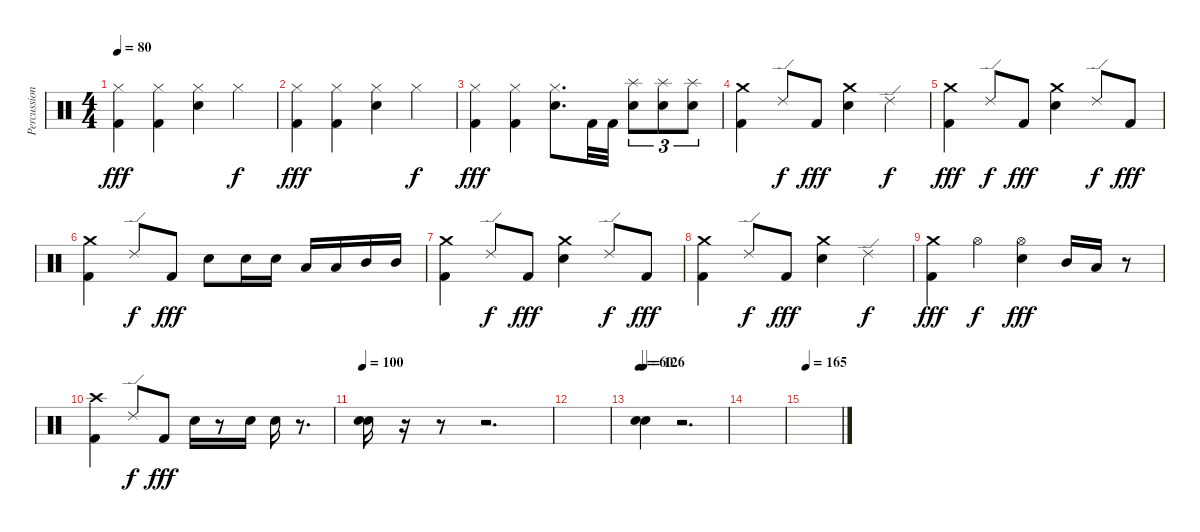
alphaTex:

\track ("Percussion" "Percussion") {instrument percussion}
\staff {score}
\articulation defaults
\ts (4 4)
\tempo 80
\clef neutral
\ks c
("Kick (hit) 2" "Hi-Hat (closed)").4{dy fff} ("Kick (hit) 2" "Hi-Hat (closed)").4 ("Electric Snare (hit)" "Hi-Hat (closed)").4 "Hi-Hat (closed)".4{dy f} |
("Kick (hit) 2" "Hi-Hat (closed)").4{dy fff} ("Kick (hit) 2" "Hi-Hat (closed)").4 ("Electric Snare (hit)" "Hi-Hat (closed)").4 "Hi-Hat (closed)".4{dy f} |
("Kick (hit) 2" "Hi-Hat (closed)").4{dy fff} ("Kick (hit) 2" "Hi-Hat (closed)").4 ("Electric Snare (hit)" "Hi-Hat (closed)").8{d} "Kick (hit) 2".32 "Kick (hit) 2".32 ("Electric Snare (hit)" "Splash (hit)").8{tu (3 2)} ("Electric Snare (hit)" "Splash (hit)").8{tu (3 2)} ("Electric Snare (hit)" "Splash (hit)").8{tu (3 2)} |
("Kick (hit) 2" "Crash medium (hit)").4 "Ride (edge) 2".8{dy f} "Kick (hit) 2".8{dy fff} ("Electric Snare (hit)" "Crash medium (hit)").4 "Ride (edge) 2".4{dy f} |
("Kick (hit) 2" "Crash medium (hit)").4{dy fff} "Ride (edge) 2".8{dy f} "Kick (hit) 2".8{dy fff} ("Electric Snare (hit)" "Crash medium (hit)").4 "Ride (edge) 2".8{dy f} "Kick (hit) 2".8{dy fff} |
("Kick (hit) 2" "Crash medium (hit)").4 "Ride (edge) 2".8{dy f} "Kick (hit) 2".8{dy fff} "Electric Snare (hit)".8 "Electric Snare (hit)".16 "Electric Snare (hit)".16 "Low Tom (hit)".16 "Low Tom (hit)".16 "Mid Tom (hit)".16 "Mid Tom (hit)".16 |
("Kick (hit) 2" "Crash medium (hit)").4 "Ride (edge) 2".8{dy f} "Kick (hit) 2".8{dy fff} ("Electric Snare (hit)" "Crash medium (hit)").4 "Ride (edge) 2".8{dy f} "Kick (hit) 2".8{dy fff} |
("Kick (hit) 2" "Crash medium (hit)").4 "Ride (edge) 2".8{dy f} "Kick (hit) 2".8{dy fff} ("Electric Snare (hit)" "Crash medium (hit)").4 "Ride (edge) 2".4{dy f} |
("Kick (hit) 2" "Crash medium (hit)").4{dy fff} "Hi-Hat (open)".4{dy f} ("Electric Snare (hit)" "Hi-Hat (open)").4{dy fff} "Mid Tom (hit)".16 "Low Tom (hit)".16 r.8 |
("Kick (hit) 2" "Crash high (hit)").4 "Ride (edge) 2".8{dy f} "Kick (hit) 2".8{dy fff} "Electric Snare (hit)".16 r.8 "Electric Snare (hit)".16 "Electric Snare (hit)".16 r.8{d} |
\tempo 100
("Electric Snare (hit)" "Electric Snare (hit)").16 r.16 r.8 r.2{d} |
|
\tempo 60
\tempo (126 0.05)
("Electric Snare (hit)" "Electric Snare (hit)").4 r.2{d} |
|
\tempo (165 0.05)
